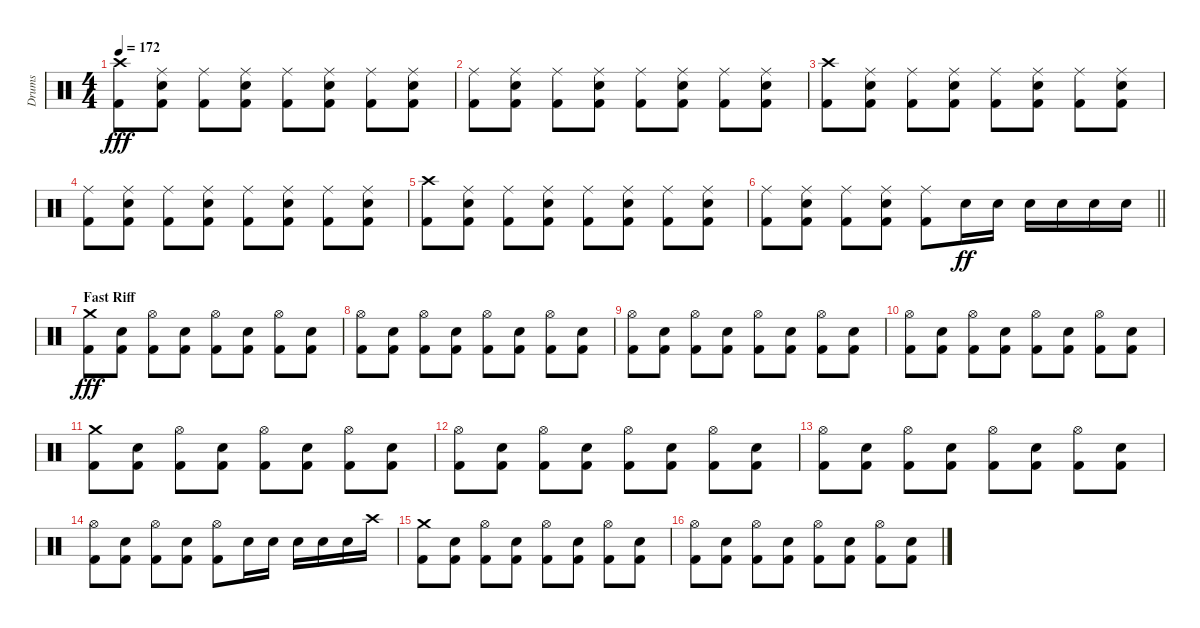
\track ("Drums" "Drums") {instrument percussion}
\staff {score}
\articulation defaults
\ts (4 4)
\tempo 172
\clef neutral
\ks c
("Crash high (hit)" "Kick (hit) 2").8{dy fff} ("Ride (middle)" "Electric Snare (hit)" "Kick (hit) 2").8 ("Ride (middle)" "Kick (hit) 2").8 ("Ride (middle)" "Electric Snare (hit)" "Kick (hit) 2").8 ("Ride (middle)" "Kick (hit) 2").8 ("Ride (middle)" "Electric Snare (hit)" "Kick (hit) 2").8 ("Ride (middle)" "Kick (hit) 2").8 ("Ride (middle)" "Electric Snare (hit)" "Kick (hit) 2").8 |
("Ride (middle)" "Kick (hit) 2").8 ("Ride (middle)" "Electric Snare (hit)" "Kick (hit) 2").8 ("Ride (middle)" "Kick (hit) 2").8 ("Ride (middle)" "Electric Snare (hit)" "Kick (hit) 2").8 ("Ride (middle)" "Kick (hit) 2").8 ("Ride (middle)" "Electric Snare (hit)" "Kick (hit) 2").8 ("Ride (middle)" "Kick (hit) 2").8 ("Ride (middle)" "Electric Snare (hit)" "Kick (hit) 2").8 |
("Crash high (hit)" "Kick (hit) 2").8 ("Ride (middle)" "Electric Snare (hit)" "Kick (hit) 2").8 ("Ride (middle)" "Kick (hit) 2").8 ("Ride (middle)" "Electric Snare (hit)" "Kick (hit) 2").8 ("Ride (middle)" "Kick (hit) 2").8 ("Ride (middle)" "Electric Snare (hit)" "Kick (hit) 2").8 ("Ride (middle)" "Kick (hit) 2").8 ("Ride (middle)" "Electric Snare (hit)" "Kick (hit) 2").8 |
("Ride (middle)" "Kick (hit) 2").8 ("Ride (middle)" "Electric Snare (hit)" "Kick (hit) 2").8 ("Ride (middle)" "Kick (hit) 2").8 ("Ride (middle)" "Electric Snare (hit)" "Kick (hit) 2").8 ("Ride (middle)" "Kick (hit) 2").8 ("Ride (middle)" "Electric Snare (hit)" "Kick (hit) 2").8 ("Ride (middle)" "Kick (hit) 2").8 ("Ride (middle)" "Electric Snare (hit)" "Kick (hit) 2").8 |
("Crash high (hit)" "Kick (hit) 2").8 ("Ride (middle)" "Electric Snare (hit)" "Kick (hit) 2").8 ("Ride (middle)" "Kick (hit) 2").8 ("Ride (middle)" "Electric Snare (hit)" "Kick (hit) 2").8 ("Ride (middle)" "Kick (hit) 2").8 ("Ride (middle)" "Electric Snare (hit)" "Kick (hit) 2").8 ("Ride (middle)" "Kick (hit) 2").8 ("Ride (middle)" "Electric Snare (hit)" "Kick (hit) 2").8 |
\barLineRight lightlight
("Ride (middle)" "Kick (hit) 2").8 ("Ride (middle)" "Electric Snare (hit)" "Kick (hit) 2").8 ("Ride (middle)" "Kick (hit) 2").8 ("Ride (middle)" "Electric Snare (hit)" "Kick (hit) 2").8 ("Ride (middle)" "Kick (hit) 2").8 "Electric Snare (hit)".16{dy ff} "Electric Snare (hit)".16 "Electric Snare (hit)".16 "Electric Snare (hit)".16 "Electric Snare (hit)".16 "Electric Snare (hit)".16 |
\section ("" "Fast Riff")
("Crash medium (hit)" "Kick (hit) 2").8{dy fff} ("Electric Snare (hit)" "Kick (hit) 2").8 ("Hi-Hat (open)" "Kick (hit) 2").8 ("Electric Snare (hit)" "Kick (hit) 2").8 ("Hi-Hat (open)" "Kick (hit) 2").8 ("Electric Snare (hit)" "Kick (hit) 2").8 ("Hi-Hat (open)" "Kick (hit) 2").8 ("Electric Snare (hit)" "Kick (hit) 2").8 |
("Hi-Hat (open)" "Kick (hit) 2").8 ("Electric Snare (hit)" "Kick (hit) 2").8 ("Hi-Hat (open)" "Kick (hit) 2").8 ("Electric Snare (hit)" "Kick (hit) 2").8 ("Hi-Hat (open)" "Kick (hit) 2").8 ("Electric Snare (hit)" "Kick (hit) 2").8 ("Hi-Hat (open)" "Kick (hit) 2").8 ("Electric Snare (hit)" "Kick (hit) 2").8 |
("Hi-Hat (open)" "Kick (hit) 2").8 ("Electric Snare (hit)" "Kick (hit) 2").8 ("Hi-Hat (open)" "Kick (hit) 2").8 ("Electric Snare (hit)" "Kick (hit) 2").8 ("Hi-Hat (open)" "Kick (hit) 2").8 ("Electric Snare (hit)" "Kick (hit) 2").8 ("Hi-Hat (open)" "Kick (hit) 2").8 ("Electric Snare (hit)" "Kick (hit) 2").8 |
("Hi-Hat (open)" "Kick (hit) 2").8 ("Electric Snare (hit)" "Kick (hit) 2").8 ("Hi-Hat (open)" "Kick (hit) 2").8 ("Electric Snare (hit)" "Kick (hit) 2").8 ("Hi-Hat (open)" "Kick (hit) 2").8 ("Electric Snare (hit)" "Kick (hit) 2").8 ("Hi-Hat (open)" "Kick (hit) 2").8 ("Electric Snare (hit)" "Kick (hit) 2").8 |
("Crash medium (hit)" "Kick (hit) 2").8 ("Electric Snare (hit)" "Kick (hit) 2").8 ("Hi-Hat (open)" "Kick (hit) 2").8 ("Electric Snare (hit)" "Kick (hit) 2").8 ("Hi-Hat (open)" "Kick (hit) 2").8 ("Electric Snare (hit)" "Kick (hit) 2").8 ("Hi-Hat (open)" "Kick (hit) 2").8 ("Electric Snare (hit)" "Kick (hit) 2").8 |
("Hi-Hat (open)" "Kick (hit) 2").8 ("Electric Snare (hit)" "Kick (hit) 2").8 ("Hi-Hat (open)" "Kick (hit) 2").8 ("Electric Snare (hit)" "Kick (hit) 2").8 ("Hi-Hat (open)" "Kick (hit) 2").8 ("Electric Snare (hit)" "Kick (hit) 2").8 ("Hi-Hat (open)" "Kick (hit) 2").8 ("Electric Snare (hit)" "Kick (hit) 2").8 |
("Hi-Hat (open)" "Kick (hit) 2").8 ("Electric Snare (hit)" "Kick (hit) 2").8 ("Hi-Hat (open)" "Kick (hit) 2").8 ("Electric Snare (hit)" "Kick (hit) 2").8 ("Hi-Hat (open)" "Kick (hit) 2").8 ("Electric Snare (hit)" "Kick (hit) 2").8 ("Hi-Hat (open)" "Kick (hit) 2").8 ("Electric Snare (hit)" "Kick (hit) 2").8 |
("Hi-Hat (open)" "Kick (hit) 2").8 ("Electric Snare (hit)" "Kick (hit) 2").8 ("Hi-Hat (open)" "Kick (hit) 2").8 ("Electric Snare (hit)" "Kick (hit) 2").8 ("Hi-Hat (open)" "Kick (hit) 2").8 "Electric Snare (hit)".16 "Electric Snare (hit)".16 "Electric Snare (hit)".16 "Electric Snare (hit)".16 "Electric Snare (hit)".16 "Crash high (hit)".16 |
("Crash medium (hit)" "Kick (hit) 2").8 ("Electric Snare (hit)" "Kick (hit) 2").8 ("Hi-Hat (open)" "Kick (hit) 2").8 ("Electric Snare (hit)" "Kick (hit) 2").8 ("Hi-Hat (open)" "Kick (hit) 2").8 ("Electric Snare (hit)" "Kick (hit) 2").8 ("Hi-Hat (open)" "Kick (hit) 2").8 ("Electric Snare (hit)" "Kick (hit) 2").8 |
("Hi-Hat (open)" "Kick (hit) 2").8 ("Electric Snare (hit)" "Kick (hit) 2").8 ("Hi-Hat (open)" "Kick (hit) 2").8 ("Electric Snare (hit)" "Kick (hit) 2").8 ("Hi-Hat (open)" "Kick (hit) 2").8 ("Electric Snare (hit)" "Kick (hit) 2").8 ("Hi-Hat (open)" "Kick (hit) 2").8 ("Electric Snare (hit)" "Kick (hit) 2").8
